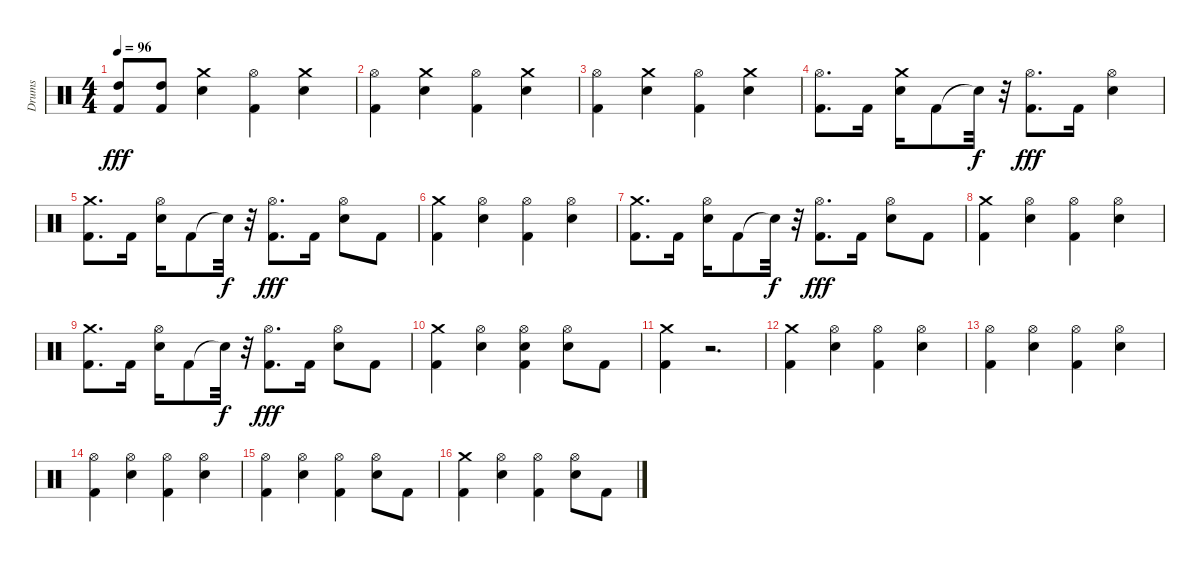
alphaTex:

\track ("Drums" "Drums") {instrument percussion}
\staff {score}
\articulation defaults
\ts (4 4)
\tempo 96
\clef neutral
\ks c
("Kick (hit) 2" "High Tom (hit)").8{dy fff} ("Kick (hit) 2" "High Tom (hit)").8 ("Snare (hit) 2" "Crash medium (hit)").4 ("Hi-Hat (open)" "Kick (hit) 2").4 ("Snare (hit) 2" "Crash medium (hit)").4 |
("Hi-Hat (open)" "Kick (hit) 2").4 ("Snare (hit) 2" "Crash medium (hit)").4 ("Hi-Hat (open)" "Kick (hit) 2").4 ("Snare (hit) 2" "Crash medium (hit)").4 |
("Hi-Hat (open)" "Kick (hit) 2").4 ("Snare (hit) 2" "Crash medium (hit)").4 ("Hi-Hat (open)" "Kick (hit) 2").4 ("Snare (hit) 2" "Crash medium (hit)").4 |
("Hi-Hat (open)" "Kick (hit) 2").8{d} "Kick (hit) 2".16 ("Crash medium (hit)" "Snare (hit) 2").16 "Kick (hit) 2".8 "Snare (hit)"{t}.32{dy f} r.32 ("Hi-Hat (open)" "Kick (hit) 2").8{d dy fff} "Kick (hit) 2".16 ("Hi-Hat (open)" "Snare (hit) 2").4 |
("Kick (hit) 2" "Crash medium (hit)").8{d} "Kick (hit) 2".16 ("Hi-Hat (open)" "Snare (hit) 2").16 "Kick (hit) 2".8 "Snare (hit)"{t}.32{dy f} r.32 ("Kick (hit) 2" "Hi-Hat (open)").8{d dy fff} "Kick (hit) 2".16 ("Snare (hit) 2" "Hi-Hat (open)").8 "Kick (hit) 2".8 |
("Kick (hit) 2" "Crash medium (hit)").4 ("Hi-Hat (open)" "Snare (hit) 2").4 ("Hi-Hat (open)" "Kick (hit) 2").4 ("Hi-Hat (open)" "Snare (hit) 2").4 |
("Kick (hit) 2" "Crash medium (hit)").8{d} "Kick (hit) 2".16 ("Hi-Hat (open)" "Snare (hit) 2").16 "Kick (hit) 2".8 "Snare (hit)"{t}.32{dy f} r.32 ("Kick (hit) 2" "Hi-Hat (open)").8{d dy fff} "Kick (hit) 2".16 ("Snare (hit) 2" "Hi-Hat (open)").8 "Kick (hit) 2".8 |
("Kick (hit) 2" "Crash medium (hit)").4 ("Hi-Hat (open)" "Snare (hit) 2").4 ("Hi-Hat (open)" "Kick (hit) 2").4 ("Hi-Hat (open)" "Snare (hit) 2").4 |
("Kick (hit) 2" "Crash medium (hit)").8{d} "Kick (hit) 2".16 ("Hi-Hat (open)" "Snare (hit) 2").16 "Kick (hit) 2".8 "Snare (hit)"{t}.32{dy f} r.32 ("Kick (hit) 2" "Hi-Hat (open)").8{d dy fff} "Kick (hit) 2".16 ("Snare (hit) 2" "Hi-Hat (open)").8 "Kick (hit) 2".8 |
("Kick (hit) 2" "Crash medium (hit)").4 ("Hi-Hat (open)" "Snare (hit) 2").4 ("Hi-Hat (open)" "Snare (hit) 2" "Kick (hit) 2").4 ("Hi-Hat (open)" "Snare (hit) 2").8 "Kick (hit) 2".8 |
("Kick (hit) 2" "Crash medium (hit)").4 r.2{d} |
("Crash medium (hit)" "Kick (hit) 2").4 ("Hi-Hat (open)" "Snare (hit) 2").4 ("Kick (hit) 2" "Hi-Hat (open)").4 ("Hi-Hat (open)" "Snare (hit) 2").4 |
("Hi-Hat (open)" "Kick (hit) 2").4 ("Hi-Hat (open)" "Snare (hit) 2").4 ("Hi-Hat (open)" "Kick (hit) 2").4 ("Hi-Hat (open)" "Snare (hit) 2").4 |
("Hi-Hat (open)" "Kick (hit) 2").4 ("Hi-Hat (open)" "Snare (hit) 2").4 ("Hi-Hat (open)" "Kick (hit) 2").4 ("Hi-Hat (open)" "Snare (hit) 2").4 |
("Hi-Hat (open)" "Kick (hit) 2").4 ("Hi-Hat (open)" "Snare (hit) 2").4 ("Hi-Hat (open)" "Kick (hit) 2").4 ("Snare (hit) 2" "Hi-Hat (open)").8 "Kick (hit) 2".8 |
("Kick (hit) 2" "Crash medium (hit)").4 ("Hi-Hat (open)" "Snare (hit) 2").4 ("Hi-Hat (open)" "Kick (hit) 2").4 ("Hi-Hat (open)" "Snare (hit) 2").8 "Kick (hit) 2".8
